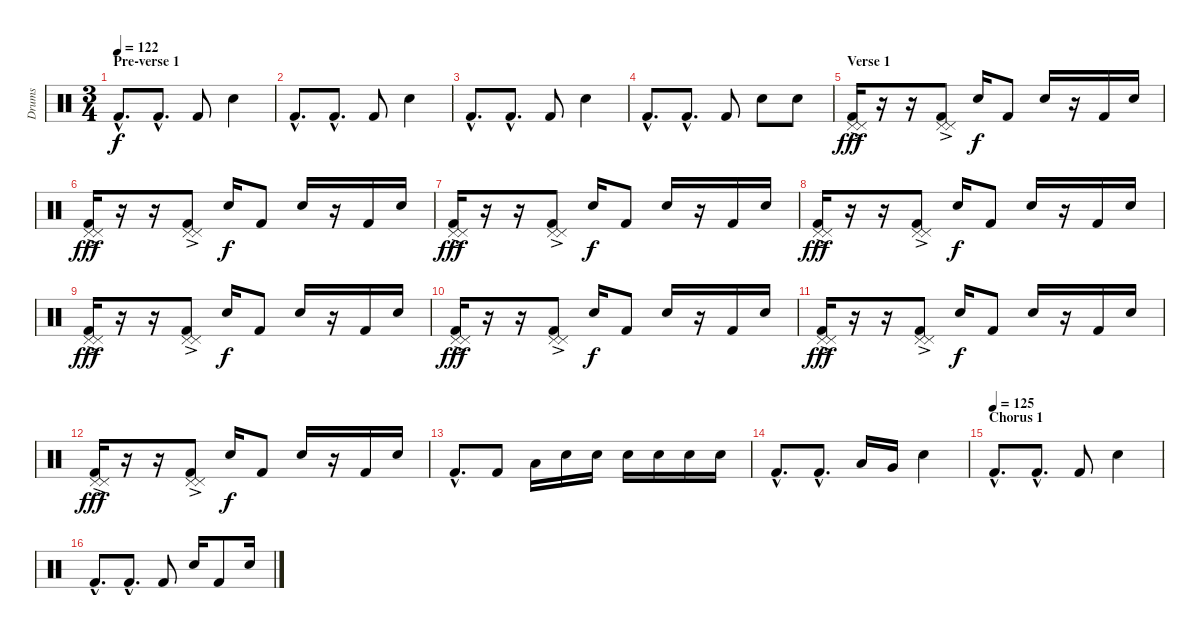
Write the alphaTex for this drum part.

\track ("Drums" "Drums") {instrument percussion}
\staff {score}
\articulation defaults
\ts (3 4)
\section ("" "Pre-verse 1")
\tempo 122
\clef neutral
\ks c "Kick (hit) 2"{hac}.8{d dy f} "Kick (hit) 2"{hac}.8{d} "Kick (hit) 2".8 "Electric Snare (hit)".4
|
"Kick (hit) 2"{hac}.8{d} "Kick (hit) 2"{hac}.8{d} "Kick (hit) 2".8 "Electric Snare (hit)".4 |
"Kick (hit) 2"{hac}.8{d} "Kick (hit) 2"{hac}.8{d} "Kick (hit) 2".8 "Electric Snare (hit)".4 |
"Kick (hit) 2"{hac}.8{d} "Kick (hit) 2"{hac}.8{d} "Kick (hit) 2".8 "Electric Snare (hit)".8 "Electric Snare (hit)".8 |
\section ("" "Verse 1")
("Pedal Hi-Hat (hit)"{ac} "Pedal Hi-Hat (hit)"{ac} "Kick (hit) 2").16{dy fff} r.16 r.16 ("Pedal Hi-Hat (hit)"{ac} "Pedal Hi-Hat (hit)"{ac} "Kick (hit) 2").8 "Electric Snare (hit)".16{dy f} "Kick (hit) 2".8 "Electric Snare (hit)".16 r.16 "Kick (hit) 2".16 "Electric Snare (hit)".16 |
("Pedal Hi-Hat (hit)"{ac} "Pedal Hi-Hat (hit)"{ac} "Kick (hit) 2").16{dy fff} r.16 r.16 ("Pedal Hi-Hat (hit)"{ac} "Pedal Hi-Hat (hit)"{ac} "Kick (hit) 2").8 "Electric Snare (hit)".16{dy f} "Kick (hit) 2".8 "Electric Snare (hit)".16 r.16 "Kick (hit) 2".16 "Electric Snare (hit)".16 |
("Pedal Hi-Hat (hit)"{ac} "Pedal Hi-Hat (hit)"{ac} "Kick (hit) 2").16{dy fff} r.16 r.16 ("Pedal Hi-Hat (hit)"{ac} "Pedal Hi-Hat (hit)"{ac} "Kick (hit) 2").8 "Electric Snare (hit)".16{dy f} "Kick (hit) 2".8 "Electric Snare (hit)".16 r.16 "Kick (hit) 2".16 "Electric Snare (hit)".16 |
("Pedal Hi-Hat (hit)"{ac} "Pedal Hi-Hat (hit)"{ac} "Kick (hit) 2").16{dy fff} r.16 r.16 ("Pedal Hi-Hat (hit)"{ac} "Pedal Hi-Hat (hit)"{ac} "Kick (hit) 2").8 "Electric Snare (hit)".16{dy f} "Kick (hit) 2".8 "Electric Snare (hit)".16 r.16 "Kick (hit) 2".16 "Electric Snare (hit)".16 |
("Pedal Hi-Hat (hit)"{ac} "Pedal Hi-Hat (hit)"{ac} "Kick (hit) 2").16{dy fff} r.16 r.16 ("Pedal Hi-Hat (hit)"{ac} "Pedal Hi-Hat (hit)"{ac} "Kick (hit) 2").8 "Electric Snare (hit)".16{dy f} "Kick (hit) 2".8 "Electric Snare (hit)".16 r.16 "Kick (hit) 2".16 "Electric Snare (hit)".16 |
("Pedal Hi-Hat (hit)"{ac} "Pedal Hi-Hat (hit)"{ac} "Kick (hit) 2").16{dy fff} r.16 r.16 ("Pedal Hi-Hat (hit)"{ac} "Pedal Hi-Hat (hit)"{ac} "Kick (hit) 2").8 "Electric Snare (hit)".16{dy f} "Kick (hit) 2".8 "Electric Snare (hit)".16 r.16 "Kick (hit) 2".16 "Electric Snare (hit)".16 |
("Pedal Hi-Hat (hit)"{ac} "Pedal Hi-Hat (hit)"{ac} "Kick (hit) 2").16{dy fff} r.16 r.16 ("Pedal Hi-Hat (hit)"{ac} "Pedal Hi-Hat (hit)"{ac} "Kick (hit) 2").8 "Electric Snare (hit)".16{dy f} "Kick (hit) 2".8 "Electric Snare (hit)".16 r.16 "Kick (hit) 2".16 "Electric Snare (hit)".16 |
("Pedal Hi-Hat (hit)"{ac} "Pedal Hi-Hat (hit)"{ac} "Kick (hit) 2").16{dy fff} r.16 r.16 ("Pedal Hi-Hat (hit)"{ac} "Pedal Hi-Hat (hit)"{ac} "Kick (hit) 2").8 "Electric Snare (hit)".16{dy f} "Kick (hit) 2".8 "Electric Snare (hit)".16 r.16 "Kick (hit) 2".16 "Electric Snare (hit)".16 |
"Kick (hit) 2"{hac}.8{d} "Kick (hit) 2".8 "Low Floor Tom (hit)".16 "Electric Snare (hit)".16 "Electric Snare (hit)".16 "Electric Snare (hit)".16 "Electric Snare (hit)".16 "Electric Snare (hit)".16 "Electric Snare (hit)".16 |
"Kick (hit) 2"{hac}.8{d} "Kick (hit) 2"{hac}.8{d} "Low Floor Tom (hit)".16 "Very Low Tom (hit)".16 "Electric Snare (hit)".4 |
\section ("" "Chorus 1")
\tempo (125)
"Kick (hit) 2"{hac}.8{d} "Kick (hit) 2"{hac}.8{d} "Kick (hit) 2".8 "Electric Snare (hit)".4 |
"Kick (hit) 2"{hac}.8{d} "Kick (hit) 2"{hac}.8{d} "Kick (hit) 2".8 "Electric Snare (hit)".16 "Kick (hit) 2".8 "Electric Snare (hit)".16
